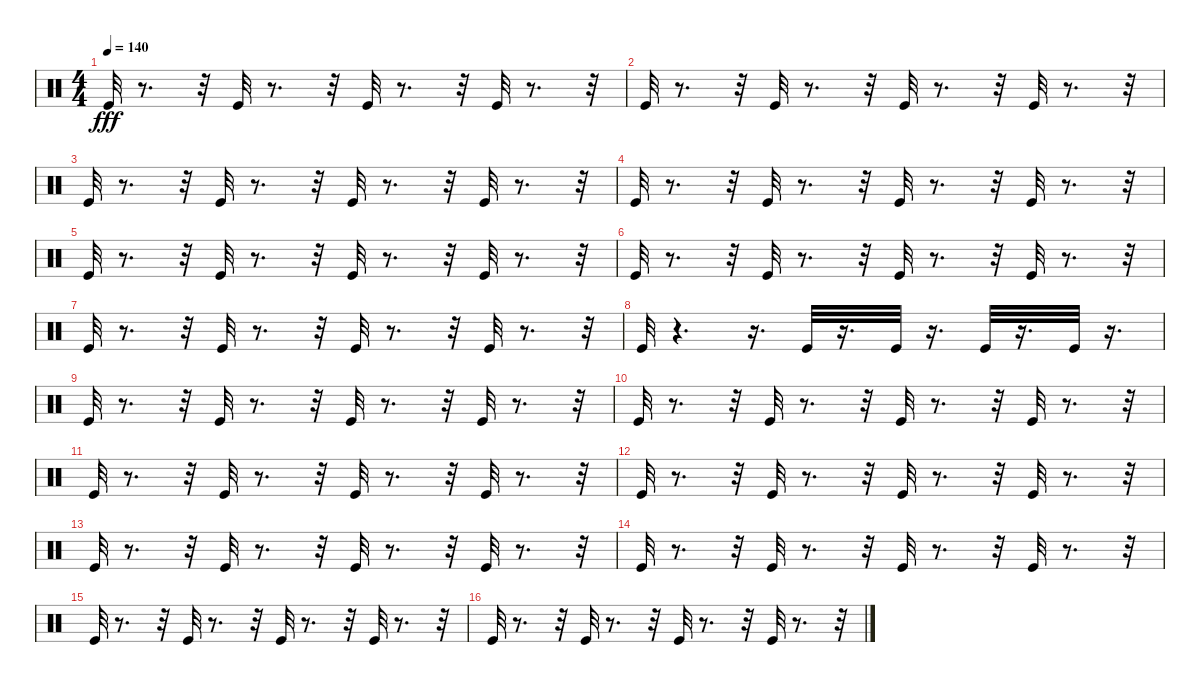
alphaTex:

\track "" {instrument percussion}
\staff {score}
\articulation defaults
\ts (4 4)
\tempo 140
\clef neutral
\ks c "Kick (hit)".32{dy fff}
r.8{d} r.32 "Kick (hit)".32 r.8{d} r.32 "Kick (hit)".32 r.8{d} r.32 "Kick (hit)".32 r.8{d} r.32 |
"Kick (hit)".32 r.8{d} r.32 "Kick (hit)".32 r.8{d} r.32 "Kick (hit)".32 r.8{d} r.32 "Kick (hit)".32 r.8{d} r.32 |
"Kick (hit)".32 r.8{d} r.32 "Kick (hit)".32 r.8{d} r.32 "Kick (hit)".32 r.8{d} r.32 "Kick (hit)".32 r.8{d} r.32 |
"Kick (hit)".32 r.8{d} r.32 "Kick (hit)".32 r.8{d} r.32 "Kick (hit)".32 r.8{d} r.32 "Kick (hit)".32 r.8{d} r.32 |
"Kick (hit)".32 r.8{d} r.32 "Kick (hit)".32 r.8{d} r.32 "Kick (hit)".32 r.8{d} r.32 "Kick (hit)".32 r.8{d} r.32 |
"Kick (hit)".32 r.8{d} r.32 "Kick (hit)".32 r.8{d} r.32 "Kick (hit)".32 r.8{d} r.32 "Kick (hit)".32 r.8{d} r.32 |
"Kick (hit)".32 r.8{d} r.32 "Kick (hit)".32 r.8{d} r.32 "Kick (hit)".32 r.8{d} r.32 "Kick (hit)".32 r.8{d} r.32 |
"Kick (hit)".32 r.4{d} r.16{d} "Kick (hit)".32 r.16{d} "Kick (hit)".32 r.16{d} "Kick (hit)".32 r.16{d} "Kick (hit)".32 r.16{d} |
"Kick (hit)".32 r.8{d} r.32 "Kick (hit)".32 r.8{d} r.32 "Kick (hit)".32 r.8{d} r.32 "Kick (hit)".32 r.8{d} r.32 |
"Kick (hit)".32 r.8{d} r.32 "Kick (hit)".32 r.8{d} r.32 "Kick (hit)".32 r.8{d} r.32 "Kick (hit)".32 r.8{d} r.32 |
"Kick (hit)".32 r.8{d} r.32 "Kick (hit)".32 r.8{d} r.32 "Kick (hit)".32 r.8{d} r.32 "Kick (hit)".32 r.8{d} r.32 |
"Kick (hit)".32 r.8{d} r.32 "Kick (hit)".32 r.8{d} r.32 "Kick (hit)".32 r.8{d} r.32 "Kick (hit)".32 r.8{d} r.32 |
"Kick (hit)".32 r.8{d} r.32 "Kick (hit)".32 r.8{d} r.32 "Kick (hit)".32 r.8{d} r.32 "Kick (hit)".32 r.8{d} r.32 |
"Kick (hit)".32 r.8{d} r.32 "Kick (hit)".32 r.8{d} r.32 "Kick (hit)".32 r.8{d} r.32 "Kick (hit)".32 r.8{d} r.32 |
"Kick (hit)".32 r.8{d} r.32 "Kick (hit)".32 r.8{d} r.32 "Kick (hit)".32 r.8{d} r.32 "Kick (hit)".32 r.8{d} r.32 |
"Kick (hit)".32 r.8{d} r.32 "Kick (hit)".32 r.8{d} r.32 "Kick (hit)".32 r.8{d} r.32 "Kick (hit)".32 r.8{d} r.32
